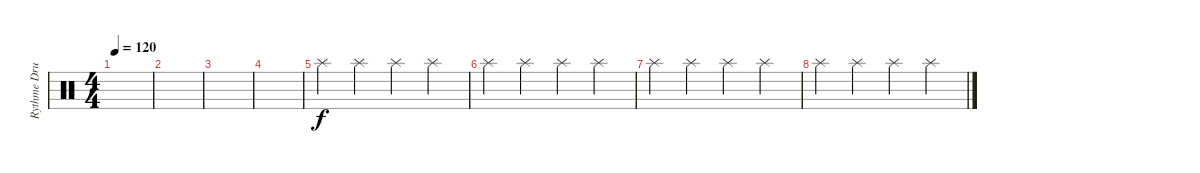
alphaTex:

\track ("Rythme Drum" "Rythme Dru") {instrument percussion}
\staff {score}
\articulation defaults
\ts (4 4)
\tempo 120
\clef neutral
\ks c
|
|
|
|
"Splash (hit)".4 "Splash (hit)".4 "Splash (hit)".4 "Splash (hit)".4 |
"Splash (hit)".4 "Splash (hit)".4 "Splash (hit)".4 "Splash (hit)".4 |
"Splash (hit)".4 "Splash (hit)".4 "Splash (hit)".4 "Splash (hit)".4 |
"Splash (hit)".4 "Splash (hit)".4 "Splash (hit)".4 "Splash (hit)".4
